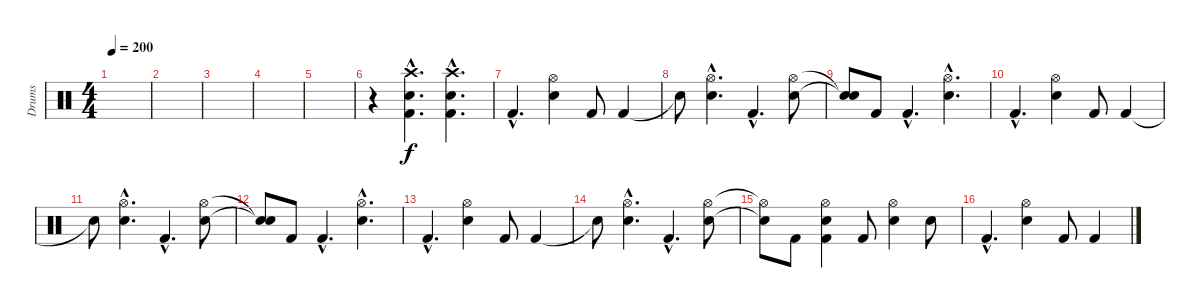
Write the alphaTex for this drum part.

\track ("Drums" "Drums") {instrument percussion}
\staff {score}
\articulation defaults
\ts (4 4)
\tempo 200
\clef neutral
\ks c
|
|
|
|
|
r.4 ("Crash high (hit)"{hac} "Snare (hit) 2"{hac} "Kick (hit) 2"{hac}).4{d} ("Crash high (hit)"{hac} "Snare (hit) 2"{hac} "Kick (hit) 2"{hac}).4{d} |
"Kick (hit) 2"{hac}.4{d} ("Hi-Hat (open)" "Snare (hit) 2").4 "Kick (hit) 2".8 "Kick (hit) 2".4 |
"Snare (hit)"{t}.8 ("Hi-Hat (open)"{hac} "Snare (hit) 2"{hac}).4{d} "Kick (hit) 2"{hac}.4{d} ("Hi-Hat (open)" "Snare (hit) 2").8 |
("Snare (hit)"{t} "Snare (hit)"{t}).8 "Kick (hit) 2".8 "Kick (hit) 2"{hac}.4{d} ("Hi-Hat (open)"{hac} "Snare (hit) 2"{hac}).4{d} |
"Kick (hit) 2"{hac}.4{d} ("Hi-Hat (open)" "Snare (hit) 2").4 "Kick (hit) 2".8 "Kick (hit) 2".4 |
"Snare (hit)"{t}.8 ("Hi-Hat (open)"{hac} "Snare (hit) 2"{hac}).4{d} "Kick (hit) 2"{hac}.4{d} ("Hi-Hat (open)" "Snare (hit) 2").8 |
("Snare (hit)"{t} "Snare (hit)"{t}).8 "Kick (hit) 2".8 "Kick (hit) 2"{hac}.4{d} ("Hi-Hat (open)"{hac} "Snare (hit) 2"{hac}).4{d} |
"Kick (hit) 2"{hac}.4{d} ("Hi-Hat (open)" "Snare (hit) 2").4 "Kick (hit) 2".8 "Kick (hit) 2".4 |
"Snare (hit)"{t}.8 ("Hi-Hat (open)"{hac} "Snare (hit) 2"{hac}).4{d} "Kick (hit) 2"{hac}.4{d} ("Hi-Hat (open)" "Snare (hit) 2").8 |
("Hi-Hat (open)"{t} "Snare (hit) 2"{t}).8 "Kick (hit) 2".8 ("Hi-Hat (open)" "Snare (hit) 2" "Kick (hit) 2").4 "Kick (hit) 2".8 ("Hi-Hat (open)" "Snare (hit) 2").4 "Snare (hit) 2".8 |
"Kick (hit) 2"{hac}.4{d} ("Hi-Hat (open)" "Snare (hit) 2").4 "Kick (hit) 2".8 "Kick (hit) 2".4
